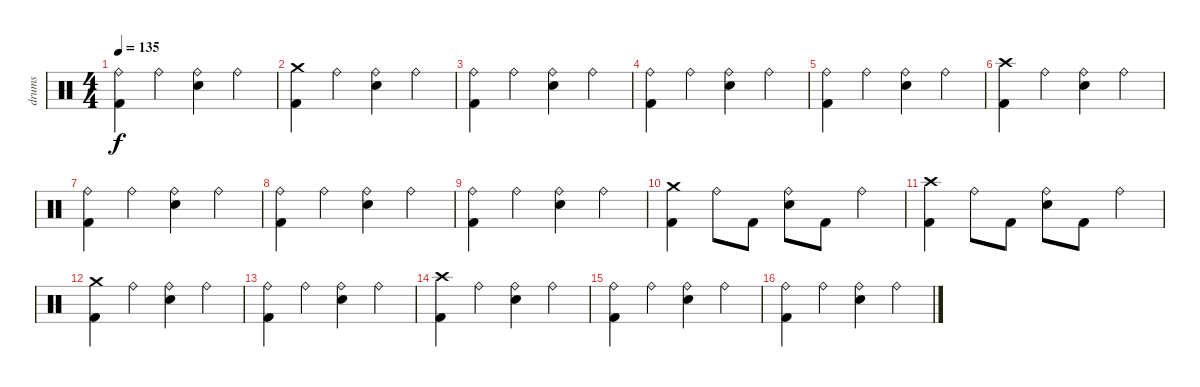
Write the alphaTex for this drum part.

\track ("drums" "drums") {instrument percussion}
\staff {score}
\articulation defaults
\ts (4 4)
\tempo 135
\clef neutral
\ks c
("Kick (hit) 2" "Ride (bell)").4{dy f} "Ride (bell)".4 ("Electric Snare (hit)" "Ride (bell)").4 "Ride (bell)".4 |
("Kick (hit) 2" "Crash medium (hit)").4 "Ride (bell)".4 ("Electric Snare (hit)" "Ride (bell)").4 "Ride (bell)".4 |
("Kick (hit) 2" "Ride (bell)").4 "Ride (bell)".4 ("Electric Snare (hit)" "Ride (bell)").4 "Ride (bell)".4 |
("Ride (bell)" "Kick (hit) 2").4 "Ride (bell)".4 ("Electric Snare (hit)" "Ride (bell)").4 "Ride (bell)".4 |
("Kick (hit) 2" "Ride (bell)").4 "Ride (bell)".4 ("Electric Snare (hit)" "Ride (bell)").4 "Ride (bell)".4 |
("Kick (hit) 2" "Crash high (hit)").4 "Ride (bell)".4 ("Electric Snare (hit)" "Ride (bell)").4 "Ride (bell)".4 |
("Kick (hit) 2" "Ride (bell)").4 "Ride (bell)".4 ("Electric Snare (hit)" "Ride (bell)").4 "Ride (bell)".4 |
("Ride (bell)" "Kick (hit) 2").4 "Ride (bell)".4 ("Electric Snare (hit)" "Ride (bell)").4 "Ride (bell)".4 |
("Kick (hit) 2" "Ride (bell)").4 "Ride (bell)".4 ("Electric Snare (hit)" "Ride (bell)").4 "Ride (bell)".4 |
("Kick (hit) 2" "Crash medium (hit)").4 "Ride (bell)".8 "Kick (hit) 2".8 ("Electric Snare (hit)" "Ride (bell)").8 "Kick (hit) 2".8 "Ride (bell)".4 |
("Kick (hit) 2" "Crash high (hit)").4 "Ride (bell)".8 "Kick (hit) 2".8 ("Electric Snare (hit)" "Ride (bell)").8 "Kick (hit) 2".8 "Ride (bell)".4 |
("Crash medium (hit)" "Kick (hit) 2").4 "Ride (bell)".4 ("Electric Snare (hit)" "Ride (bell)").4 "Ride (bell)".4 |
("Kick (hit) 2" "Ride (bell)").4 "Ride (bell)".4 ("Electric Snare (hit)" "Ride (bell)").4 "Ride (bell)".4 |
("Kick (hit) 2" "Crash high (hit)").4 "Ride (bell)".4 ("Electric Snare (hit)" "Ride (bell)").4 "Ride (bell)".4 |
("Kick (hit) 2" "Ride (bell)").4 "Ride (bell)".4 ("Electric Snare (hit)" "Ride (bell)").4 "Ride (bell)".4 |
("Ride (bell)" "Kick (hit) 2").4 "Ride (bell)".4 ("Electric Snare (hit)" "Ride (bell)").4 "Ride (bell)".4
